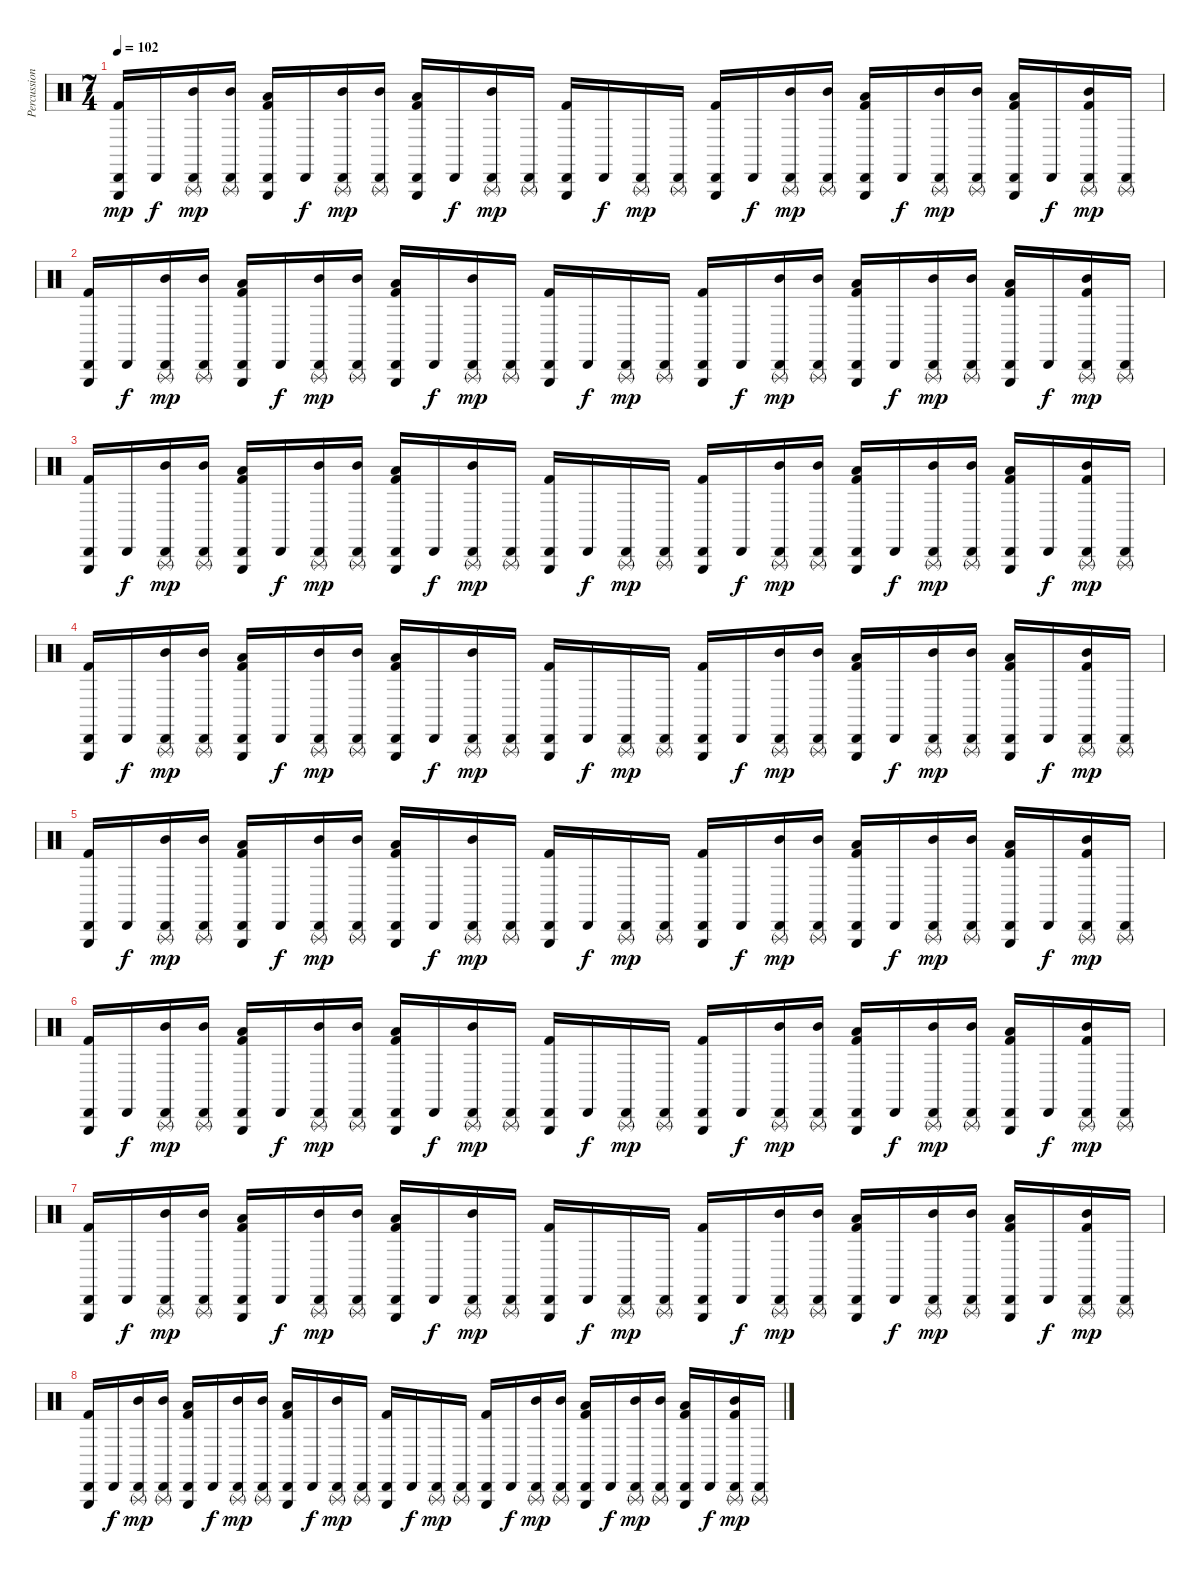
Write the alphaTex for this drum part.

\track ("Percussion" "Percussion") {instrument percussion}
\staff {score}
\articulation defaults
\ts (7 4)
\tempo 102
\clef neutral
\ks c
("Triangle (hit)" "Cabasa (hit)" "Kick (hit) 2").16{dy mp} "Cabasa (hit)".16{dy f} ("Triangle (rnute)" "Cabasa (hit)" "Mid Tom (hit)").16{dy mp} ("Triangle (rnute)" "Cabasa (hit)" "Mid Tom (hit)").16 ("Triangle (hit)" "Cabasa (hit)" "Low Tom (hit)" "Kick (hit) 2").16 "Cabasa (hit)".16{dy f} ("Triangle (rnute)" "Cabasa (hit)" "Mid Tom (hit)").16{dy mp} ("Triangle (rnute)" "Cabasa (hit)" "Mid Tom (hit)").16 ("Triangle (hit)" "Cabasa (hit)" "Low Tom (hit)" "Kick (hit) 2").16 "Cabasa (hit)".16{dy f} ("Triangle (rnute)" "Cabasa (hit)" "Mid Tom (hit)").16{dy mp} ("Triangle (rnute)" "Cabasa (hit)").16 ("Triangle (hit)" "Cabasa (hit)" "Kick (hit) 2").16 "Cabasa (hit)".16{dy f} ("Triangle (rnute)" "Cabasa (hit)").16{dy mp} ("Triangle (rnute)" "Cabasa (hit)").16 ("Triangle (hit)" "Cabasa (hit)" "Kick (hit) 2").16 "Cabasa (hit)".16{dy f} ("Triangle (rnute)" "Cabasa (hit)" "Mid Tom (hit)").16{dy mp} ("Triangle (rnute)" "Cabasa (hit)" "Mid Tom (hit)").16 ("Triangle (hit)" "Cabasa (hit)" "Low Tom (hit)" "Kick (hit) 2").16 "Cabasa (hit)".16{dy f} ("Triangle (rnute)" "Cabasa (hit)" "Mid Tom (hit)").16{dy mp} ("Triangle (rnute)" "Cabasa (hit)" "Mid Tom (hit)").16 ("Triangle (hit)" "Cabasa (hit)" "Low Tom (hit)" "Kick (hit) 2").16 "Cabasa (hit)".16{dy f} ("Triangle (rnute)" "Cabasa (hit)" "Mid Tom (hit)" "Kick (hit) 2").16{dy mp} ("Triangle (rnute)" "Cabasa (hit)").16 |
("Triangle (hit)" "Cabasa (hit)" "Kick (hit) 2").16 "Cabasa (hit)".16{dy f} ("Triangle (rnute)" "Cabasa (hit)" "Mid Tom (hit)").16{dy mp} ("Triangle (rnute)" "Cabasa (hit)" "Mid Tom (hit)").16 ("Triangle (hit)" "Cabasa (hit)" "Low Tom (hit)" "Kick (hit) 2").16 "Cabasa (hit)".16{dy f} ("Triangle (rnute)" "Cabasa (hit)" "Mid Tom (hit)").16{dy mp} ("Triangle (rnute)" "Cabasa (hit)" "Mid Tom (hit)").16 ("Triangle (hit)" "Cabasa (hit)" "Low Tom (hit)" "Kick (hit) 2").16 "Cabasa (hit)".16{dy f} ("Triangle (rnute)" "Cabasa (hit)" "Mid Tom (hit)").16{dy mp} ("Triangle (rnute)" "Cabasa (hit)").16 ("Triangle (hit)" "Cabasa (hit)" "Kick (hit) 2").16 "Cabasa (hit)".16{dy f} ("Triangle (rnute)" "Cabasa (hit)").16{dy mp} ("Triangle (rnute)" "Cabasa (hit)").16 ("Triangle (hit)" "Cabasa (hit)" "Kick (hit) 2").16 "Cabasa (hit)".16{dy f} ("Triangle (rnute)" "Cabasa (hit)" "Mid Tom (hit)").16{dy mp} ("Triangle (rnute)" "Cabasa (hit)" "Mid Tom (hit)").16 ("Triangle (hit)" "Cabasa (hit)" "Low Tom (hit)" "Kick (hit) 2").16 "Cabasa (hit)".16{dy f} ("Triangle (rnute)" "Cabasa (hit)" "Mid Tom (hit)").16{dy mp} ("Triangle (rnute)" "Cabasa (hit)" "Mid Tom (hit)").16 ("Triangle (hit)" "Cabasa (hit)" "Low Tom (hit)" "Kick (hit) 2").16 "Cabasa (hit)".16{dy f} ("Triangle (rnute)" "Cabasa (hit)" "Mid Tom (hit)" "Kick (hit) 2").16{dy mp} ("Triangle (rnute)" "Cabasa (hit)").16 |
("Triangle (hit)" "Cabasa (hit)" "Kick (hit) 2").16 "Cabasa (hit)".16{dy f} ("Triangle (rnute)" "Cabasa (hit)" "Mid Tom (hit)").16{dy mp} ("Triangle (rnute)" "Cabasa (hit)" "Mid Tom (hit)").16 ("Triangle (hit)" "Cabasa (hit)" "Low Tom (hit)" "Kick (hit) 2").16 "Cabasa (hit)".16{dy f} ("Triangle (rnute)" "Cabasa (hit)" "Mid Tom (hit)").16{dy mp} ("Triangle (rnute)" "Cabasa (hit)" "Mid Tom (hit)").16 ("Triangle (hit)" "Cabasa (hit)" "Low Tom (hit)" "Kick (hit) 2").16 "Cabasa (hit)".16{dy f} ("Triangle (rnute)" "Cabasa (hit)" "Mid Tom (hit)").16{dy mp} ("Triangle (rnute)" "Cabasa (hit)").16 ("Triangle (hit)" "Cabasa (hit)" "Kick (hit) 2").16 "Cabasa (hit)".16{dy f} ("Triangle (rnute)" "Cabasa (hit)").16{dy mp} ("Triangle (rnute)" "Cabasa (hit)").16 ("Triangle (hit)" "Cabasa (hit)" "Kick (hit) 2").16 "Cabasa (hit)".16{dy f} ("Triangle (rnute)" "Cabasa (hit)" "Mid Tom (hit)").16{dy mp} ("Triangle (rnute)" "Cabasa (hit)" "Mid Tom (hit)").16 ("Triangle (hit)" "Cabasa (hit)" "Low Tom (hit)" "Kick (hit) 2").16 "Cabasa (hit)".16{dy f} ("Triangle (rnute)" "Cabasa (hit)" "Mid Tom (hit)").16{dy mp} ("Triangle (rnute)" "Cabasa (hit)" "Mid Tom (hit)").16 ("Triangle (hit)" "Cabasa (hit)" "Low Tom (hit)" "Kick (hit) 2").16 "Cabasa (hit)".16{dy f} ("Triangle (rnute)" "Cabasa (hit)" "Mid Tom (hit)" "Kick (hit) 2").16{dy mp} ("Triangle (rnute)" "Cabasa (hit)").16 |
("Triangle (hit)" "Cabasa (hit)" "Kick (hit) 2").16 "Cabasa (hit)".16{dy f} ("Triangle (rnute)" "Cabasa (hit)" "Mid Tom (hit)").16{dy mp} ("Triangle (rnute)" "Cabasa (hit)" "Mid Tom (hit)").16 ("Triangle (hit)" "Cabasa (hit)" "Low Tom (hit)" "Kick (hit) 2").16 "Cabasa (hit)".16{dy f} ("Triangle (rnute)" "Cabasa (hit)" "Mid Tom (hit)").16{dy mp} ("Triangle (rnute)" "Cabasa (hit)" "Mid Tom (hit)").16 ("Triangle (hit)" "Cabasa (hit)" "Low Tom (hit)" "Kick (hit) 2").16 "Cabasa (hit)".16{dy f} ("Triangle (rnute)" "Cabasa (hit)" "Mid Tom (hit)").16{dy mp} ("Triangle (rnute)" "Cabasa (hit)").16 ("Triangle (hit)" "Cabasa (hit)" "Kick (hit) 2").16 "Cabasa (hit)".16{dy f} ("Triangle (rnute)" "Cabasa (hit)").16{dy mp} ("Triangle (rnute)" "Cabasa (hit)").16 ("Triangle (hit)" "Cabasa (hit)" "Kick (hit) 2").16 "Cabasa (hit)".16{dy f} ("Triangle (rnute)" "Cabasa (hit)" "Mid Tom (hit)").16{dy mp} ("Triangle (rnute)" "Cabasa (hit)" "Mid Tom (hit)").16 ("Triangle (hit)" "Cabasa (hit)" "Low Tom (hit)" "Kick (hit) 2").16 "Cabasa (hit)".16{dy f} ("Triangle (rnute)" "Cabasa (hit)" "Mid Tom (hit)").16{dy mp} ("Triangle (rnute)" "Cabasa (hit)" "Mid Tom (hit)").16 ("Triangle (hit)" "Cabasa (hit)" "Low Tom (hit)" "Kick (hit) 2").16 "Cabasa (hit)".16{dy f} ("Triangle (rnute)" "Cabasa (hit)" "Mid Tom (hit)" "Kick (hit) 2").16{dy mp} ("Triangle (rnute)" "Cabasa (hit)").16 |
("Triangle (hit)" "Cabasa (hit)" "Kick (hit) 2").16 "Cabasa (hit)".16{dy f} ("Triangle (rnute)" "Cabasa (hit)" "Mid Tom (hit)").16{dy mp} ("Triangle (rnute)" "Cabasa (hit)" "Mid Tom (hit)").16 ("Triangle (hit)" "Cabasa (hit)" "Low Tom (hit)" "Kick (hit) 2").16 "Cabasa (hit)".16{dy f} ("Triangle (rnute)" "Cabasa (hit)" "Mid Tom (hit)").16{dy mp} ("Triangle (rnute)" "Cabasa (hit)" "Mid Tom (hit)").16 ("Triangle (hit)" "Cabasa (hit)" "Low Tom (hit)" "Kick (hit) 2").16 "Cabasa (hit)".16{dy f} ("Triangle (rnute)" "Cabasa (hit)" "Mid Tom (hit)").16{dy mp} ("Triangle (rnute)" "Cabasa (hit)").16 ("Triangle (hit)" "Cabasa (hit)" "Kick (hit) 2").16 "Cabasa (hit)".16{dy f} ("Triangle (rnute)" "Cabasa (hit)").16{dy mp} ("Triangle (rnute)" "Cabasa (hit)").16 ("Triangle (hit)" "Cabasa (hit)" "Kick (hit) 2").16 "Cabasa (hit)".16{dy f} ("Triangle (rnute)" "Cabasa (hit)" "Mid Tom (hit)").16{dy mp} ("Triangle (rnute)" "Cabasa (hit)" "Mid Tom (hit)").16 ("Triangle (hit)" "Cabasa (hit)" "Low Tom (hit)" "Kick (hit) 2").16 "Cabasa (hit)".16{dy f} ("Triangle (rnute)" "Cabasa (hit)" "Mid Tom (hit)").16{dy mp} ("Triangle (rnute)" "Cabasa (hit)" "Mid Tom (hit)").16 ("Triangle (hit)" "Cabasa (hit)" "Low Tom (hit)" "Kick (hit) 2").16 "Cabasa (hit)".16{dy f} ("Triangle (rnute)" "Cabasa (hit)" "Mid Tom (hit)" "Kick (hit) 2").16{dy mp} ("Triangle (rnute)" "Cabasa (hit)").16 |
("Triangle (hit)" "Cabasa (hit)" "Kick (hit) 2").16 "Cabasa (hit)".16{dy f} ("Triangle (rnute)" "Cabasa (hit)" "Mid Tom (hit)").16{dy mp} ("Triangle (rnute)" "Cabasa (hit)" "Mid Tom (hit)").16 ("Triangle (hit)" "Cabasa (hit)" "Low Tom (hit)" "Kick (hit) 2").16 "Cabasa (hit)".16{dy f} ("Triangle (rnute)" "Cabasa (hit)" "Mid Tom (hit)").16{dy mp} ("Triangle (rnute)" "Cabasa (hit)" "Mid Tom (hit)").16 ("Triangle (hit)" "Cabasa (hit)" "Low Tom (hit)" "Kick (hit) 2").16 "Cabasa (hit)".16{dy f} ("Triangle (rnute)" "Cabasa (hit)" "Mid Tom (hit)").16{dy mp} ("Triangle (rnute)" "Cabasa (hit)").16 ("Triangle (hit)" "Cabasa (hit)" "Kick (hit) 2").16 "Cabasa (hit)".16{dy f} ("Triangle (rnute)" "Cabasa (hit)").16{dy mp} ("Triangle (rnute)" "Cabasa (hit)").16 ("Triangle (hit)" "Cabasa (hit)" "Kick (hit) 2").16 "Cabasa (hit)".16{dy f} ("Triangle (rnute)" "Cabasa (hit)" "Mid Tom (hit)").16{dy mp} ("Triangle (rnute)" "Cabasa (hit)" "Mid Tom (hit)").16 ("Triangle (hit)" "Cabasa (hit)" "Low Tom (hit)" "Kick (hit) 2").16 "Cabasa (hit)".16{dy f} ("Triangle (rnute)" "Cabasa (hit)" "Mid Tom (hit)").16{dy mp} ("Triangle (rnute)" "Cabasa (hit)" "Mid Tom (hit)").16 ("Triangle (hit)" "Cabasa (hit)" "Low Tom (hit)" "Kick (hit) 2").16 "Cabasa (hit)".16{dy f} ("Triangle (rnute)" "Cabasa (hit)" "Mid Tom (hit)" "Kick (hit) 2").16{dy mp} ("Triangle (rnute)" "Cabasa (hit)").16 |
("Triangle (hit)" "Cabasa (hit)" "Kick (hit) 2").16 "Cabasa (hit)".16{dy f} ("Triangle (rnute)" "Cabasa (hit)" "Mid Tom (hit)").16{dy mp} ("Triangle (rnute)" "Cabasa (hit)" "Mid Tom (hit)").16 ("Triangle (hit)" "Cabasa (hit)" "Low Tom (hit)" "Kick (hit) 2").16 "Cabasa (hit)".16{dy f} ("Triangle (rnute)" "Cabasa (hit)" "Mid Tom (hit)").16{dy mp} ("Triangle (rnute)" "Cabasa (hit)" "Mid Tom (hit)").16 ("Triangle (hit)" "Cabasa (hit)" "Low Tom (hit)" "Kick (hit) 2").16 "Cabasa (hit)".16{dy f} ("Triangle (rnute)" "Cabasa (hit)" "Mid Tom (hit)").16{dy mp} ("Triangle (rnute)" "Cabasa (hit)").16 ("Triangle (hit)" "Cabasa (hit)" "Kick (hit) 2").16 "Cabasa (hit)".16{dy f} ("Triangle (rnute)" "Cabasa (hit)").16{dy mp} ("Triangle (rnute)" "Cabasa (hit)").16 ("Triangle (hit)" "Cabasa (hit)" "Kick (hit) 2").16 "Cabasa (hit)".16{dy f} ("Triangle (rnute)" "Cabasa (hit)" "Mid Tom (hit)").16{dy mp} ("Triangle (rnute)" "Cabasa (hit)" "Mid Tom (hit)").16 ("Triangle (hit)" "Cabasa (hit)" "Low Tom (hit)" "Kick (hit) 2").16 "Cabasa (hit)".16{dy f} ("Triangle (rnute)" "Cabasa (hit)" "Mid Tom (hit)").16{dy mp} ("Triangle (rnute)" "Cabasa (hit)" "Mid Tom (hit)").16 ("Triangle (hit)" "Cabasa (hit)" "Low Tom (hit)" "Kick (hit) 2").16 "Cabasa (hit)".16{dy f} ("Triangle (rnute)" "Cabasa (hit)" "Mid Tom (hit)" "Kick (hit) 2").16{dy mp} ("Triangle (rnute)" "Cabasa (hit)").16 |
("Triangle (hit)" "Cabasa (hit)" "Kick (hit) 2").16 "Cabasa (hit)".16{dy f} ("Triangle (rnute)" "Cabasa (hit)" "Mid Tom (hit)").16{dy mp} ("Triangle (rnute)" "Cabasa (hit)" "Mid Tom (hit)").16 ("Triangle (hit)" "Cabasa (hit)" "Low Tom (hit)" "Kick (hit) 2").16 "Cabasa (hit)".16{dy f} ("Triangle (rnute)" "Cabasa (hit)" "Mid Tom (hit)").16{dy mp} ("Triangle (rnute)" "Cabasa (hit)" "Mid Tom (hit)").16 ("Triangle (hit)" "Cabasa (hit)" "Low Tom (hit)" "Kick (hit) 2").16 "Cabasa (hit)".16{dy f} ("Triangle (rnute)" "Cabasa (hit)" "Mid Tom (hit)").16{dy mp} ("Triangle (rnute)" "Cabasa (hit)").16 ("Triangle (hit)" "Cabasa (hit)" "Kick (hit) 2").16 "Cabasa (hit)".16{dy f} ("Triangle (rnute)" "Cabasa (hit)").16{dy mp} ("Triangle (rnute)" "Cabasa (hit)").16 ("Triangle (hit)" "Cabasa (hit)" "Kick (hit) 2").16 "Cabasa (hit)".16{dy f} ("Triangle (rnute)" "Cabasa (hit)" "Mid Tom (hit)").16{dy mp} ("Triangle (rnute)" "Cabasa (hit)" "Mid Tom (hit)").16 ("Triangle (hit)" "Cabasa (hit)" "Low Tom (hit)" "Kick (hit) 2").16 "Cabasa (hit)".16{dy f} ("Triangle (rnute)" "Cabasa (hit)" "Mid Tom (hit)").16{dy mp} ("Triangle (rnute)" "Cabasa (hit)" "Mid Tom (hit)").16 ("Triangle (hit)" "Cabasa (hit)" "Low Tom (hit)" "Kick (hit) 2").16 "Cabasa (hit)".16{dy f} ("Triangle (rnute)" "Cabasa (hit)" "Mid Tom (hit)" "Kick (hit) 2").16{dy mp} ("Triangle (rnute)" "Cabasa (hit)").16
